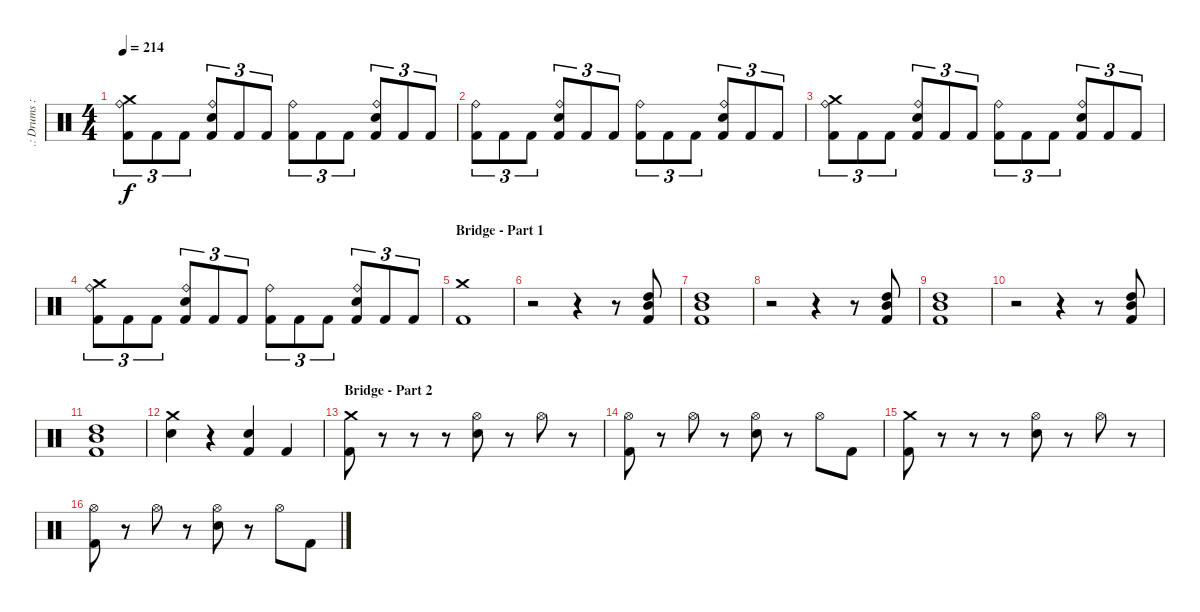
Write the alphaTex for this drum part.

\track (".: Drums :." ".: Drums :") {instrument percussion}
\staff {score}
\articulation defaults
\ts (4 4)
\tempo 214
\clef neutral
\ks c
("Kick (hit) 2" "Ride (bell)" "Crash medium (hit)").8{tu (3 2) dy f} "Kick (hit) 2".8{tu (3 2)} "Kick (hit) 2".8{tu (3 2)} ("Kick (hit) 2" "Ride (bell)" "Snare (hit) 2").8{tu (3 2)} "Kick (hit) 2".8{tu (3 2)} "Kick (hit) 2".8{tu (3 2)} ("Kick (hit) 2" "Ride (bell)").8{tu (3 2)} "Kick (hit) 2".8{tu (3 2)} "Kick (hit) 2".8{tu (3 2)} ("Kick (hit) 2" "Ride (bell)" "Snare (hit) 2").8{tu (3 2)} "Kick (hit) 2".8{tu (3 2)} "Kick (hit) 2".8{tu (3 2)} |
("Kick (hit) 2" "Ride (bell)").8{tu (3 2)} "Kick (hit) 2".8{tu (3 2)} "Kick (hit) 2".8{tu (3 2)} ("Kick (hit) 2" "Ride (bell)" "Snare (hit) 2").8{tu (3 2)} "Kick (hit) 2".8{tu (3 2)} "Kick (hit) 2".8{tu (3 2)} ("Kick (hit) 2" "Ride (bell)").8{tu (3 2)} "Kick (hit) 2".8{tu (3 2)} "Kick (hit) 2".8{tu (3 2)} ("Kick (hit) 2" "Ride (bell)" "Snare (hit) 2").8{tu (3 2)} "Kick (hit) 2".8{tu (3 2)} "Kick (hit) 2".8{tu (3 2)} |
("Kick (hit) 2" "Ride (bell)" "Crash medium (hit)").8{tu (3 2)} "Kick (hit) 2".8{tu (3 2)} "Kick (hit) 2".8{tu (3 2)} ("Kick (hit) 2" "Ride (bell)" "Snare (hit) 2").8{tu (3 2)} "Kick (hit) 2".8{tu (3 2)} "Kick (hit) 2".8{tu (3 2)} ("Kick (hit) 2" "Ride (bell)").8{tu (3 2)} "Kick (hit) 2".8{tu (3 2)} "Kick (hit) 2".8{tu (3 2)} ("Kick (hit) 2" "Ride (bell)" "Snare (hit) 2").8{tu (3 2)} "Kick (hit) 2".8{tu (3 2)} "Kick (hit) 2".8{tu (3 2)} |
("Kick (hit) 2" "Ride (bell)" "Crash medium (hit)").8{tu (3 2)} "Kick (hit) 2".8{tu (3 2)} "Kick (hit) 2".8{tu (3 2)} ("Kick (hit) 2" "Ride (bell)" "Snare (hit) 2").8{tu (3 2)} "Kick (hit) 2".8{tu (3 2)} "Kick (hit) 2".8{tu (3 2)} ("Kick (hit) 2" "Ride (bell)").8{tu (3 2)} "Kick (hit) 2".8{tu (3 2)} "Kick (hit) 2".8{tu (3 2)} ("Kick (hit) 2" "Ride (bell)" "Snare (hit) 2").8{tu (3 2)} "Kick (hit) 2".8{tu (3 2)} "Kick (hit) 2".8{tu (3 2)} |
\section ("" "Bridge - Part 1")
("Crash medium (hit)" "Kick (hit) 2").1 |
r.2 r.4 r.8 ("Kick (hit) 2" "High Tom (hit)" "Mid Tom (hit)").8 |
("Kick (hit) 2" "High Tom (hit)" "Mid Tom (hit)").1 |
r.2 r.4 r.8 ("Kick (hit) 2" "High Tom (hit)" "Mid Tom (hit)").8 |
("Kick (hit) 2" "High Tom (hit)" "Mid Tom (hit)").1 |
r.2 r.4 r.8 ("Kick (hit) 2" "High Tom (hit)" "Mid Tom (hit)").8 |
("Kick (hit) 2" "High Tom (hit)" "Mid Tom (hit)").1 |
("Snare (hit) 2" "Crash medium (hit)").4 r.4 ("Snare (hit) 2" "Kick (hit) 2").4 "Kick (hit) 2".4 |
\section ("" "Bridge - Part 2")
("Crash medium (hit)" "Kick (hit) 2").8 r.8 r.8 r.8 ("Snare (hit) 2" "Hi-Hat (open)").8 r.8 "Hi-Hat (open)".8 r.8 |
("Kick (hit) 2" "Hi-Hat (open)").8 r.8 "Hi-Hat (open)".8 r.8 ("Snare (hit) 2" "Hi-Hat (open)").8 r.8 "Hi-Hat (open)".8 "Kick (hit) 2".8 |
("Crash medium (hit)" "Kick (hit) 2").8 r.8 r.8 r.8 ("Snare (hit) 2" "Hi-Hat (open)").8 r.8 "Hi-Hat (open)".8 r.8 |
("Kick (hit) 2" "Hi-Hat (open)").8 r.8 "Hi-Hat (open)".8 r.8 ("Snare (hit) 2" "Hi-Hat (open)").8 r.8 "Hi-Hat (open)".8 "Kick (hit) 2".8
